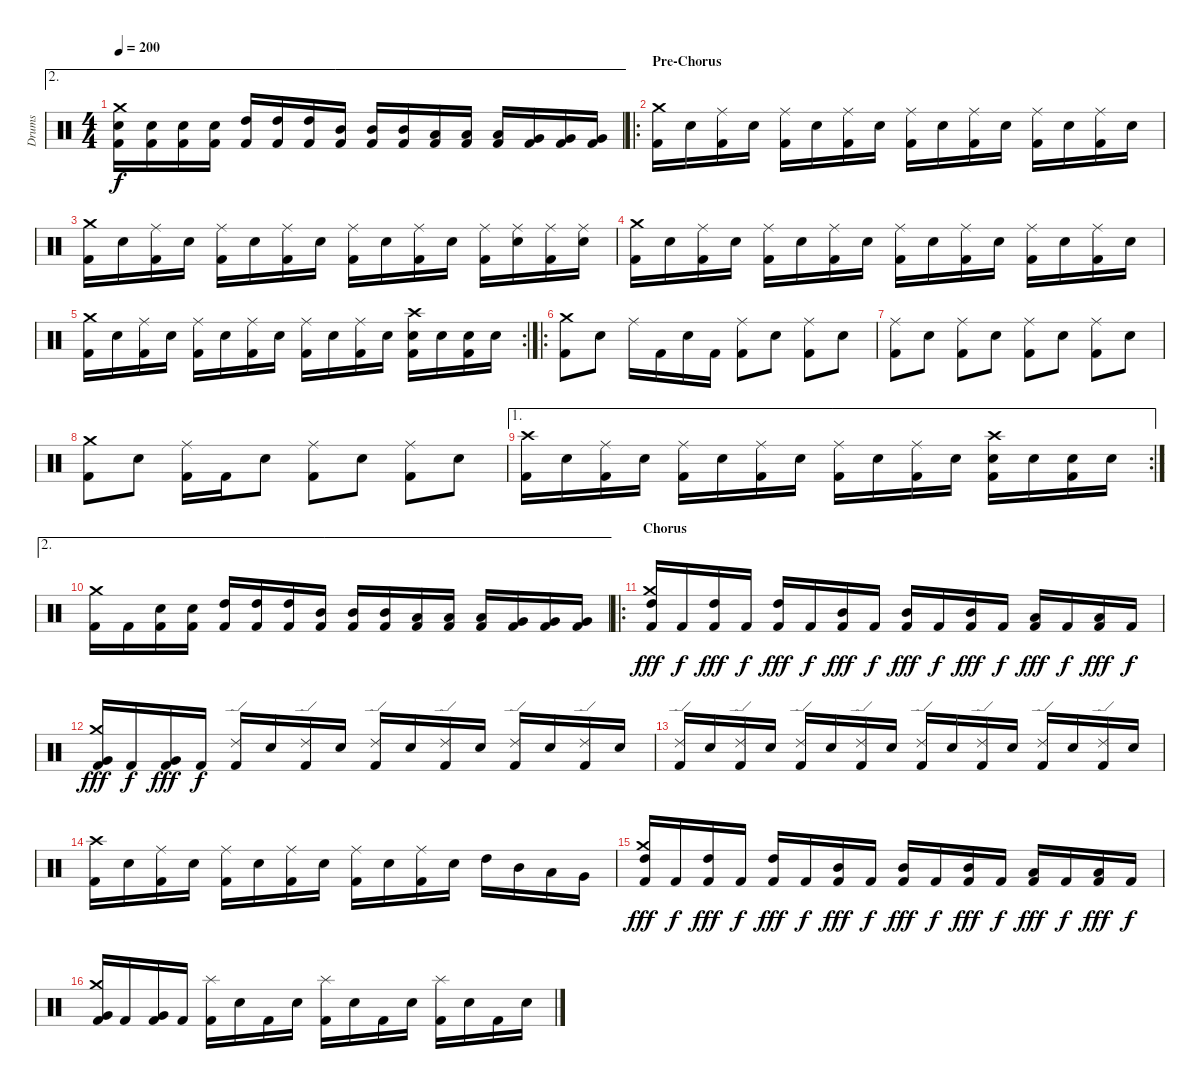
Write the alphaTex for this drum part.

\track ("Drums" "Drums") {instrument percussion}
\staff {score}
\articulation defaults
\ae 2
\ts (4 4)
\tempo 200
\clef neutral
\ks c
("Kick (hit) 2" "Electric Snare (hit)" "Crash medium (hit)").16{dy f} ("Kick (hit) 2" "Electric Snare (hit)").16 ("Kick (hit) 2" "Electric Snare (hit)").16 ("Kick (hit) 2" "Electric Snare (hit)").16 ("Kick (hit) 2" "High Tom (hit)").16 ("Kick (hit) 2" "High Tom (hit)").16 ("Kick (hit) 2" "High Tom (hit)").16 ("Kick (hit) 2" "Mid Tom (hit)").16 ("Kick (hit) 2" "Mid Tom (hit)").16 ("Kick (hit) 2" "Mid Tom (hit)").16 ("Kick (hit) 2" "Low Tom (hit)").16 ("Kick (hit) 2" "Low Tom (hit)").16 ("Kick (hit) 2" "Low Tom (hit)").16 ("Kick (hit) 2" "Very Low Tom (hit)").16 ("Kick (hit) 2" "Very Low Tom (hit)").16 ("Kick (hit) 2" "Very Low Tom (hit)").16 |
\ro
\section ("" "Pre-Chorus")
("Kick (hit) 2" "Crash medium (hit)").16 "Electric Snare (hit)".16 ("Kick (hit) 2" "Ride (middle)").16 "Electric Snare (hit)".16 ("Kick (hit) 2" "Ride (middle)").16 "Electric Snare (hit)".16 ("Kick (hit) 2" "Ride (middle)").16 "Electric Snare (hit)".16 ("Kick (hit) 2" "Ride (middle)").16 "Electric Snare (hit)".16 ("Kick (hit) 2" "Ride (middle)").16 "Electric Snare (hit)".16 ("Kick (hit) 2" "Ride (middle)").16 "Electric Snare (hit)".16 ("Kick (hit) 2" "Ride (middle)").16 "Electric Snare (hit)".16 |
("Kick (hit) 2" "Crash medium (hit)").16 "Electric Snare (hit)".16 ("Kick (hit) 2" "Ride (middle)").16 "Electric Snare (hit)".16 ("Kick (hit) 2" "Ride (middle)").16 "Electric Snare (hit)".16 ("Kick (hit) 2" "Ride (middle)").16 "Electric Snare (hit)".16 ("Kick (hit) 2" "Ride (middle)").16 "Electric Snare (hit)".16 ("Kick (hit) 2" "Ride (middle)").16 "Electric Snare (hit)".16 ("Kick (hit) 2" "Ride (middle)").16 ("Electric Snare (hit)" "Ride (middle)").16 ("Kick (hit) 2" "Ride (middle)").16 ("Electric Snare (hit)" "Ride (middle)").16 |
("Kick (hit) 2" "Crash medium (hit)").16 "Electric Snare (hit)".16 ("Kick (hit) 2" "Ride (middle)").16 "Electric Snare (hit)".16 ("Kick (hit) 2" "Ride (middle)").16 "Electric Snare (hit)".16 ("Kick (hit) 2" "Ride (middle)").16 "Electric Snare (hit)".16 ("Kick (hit) 2" "Ride (middle)").16 "Electric Snare (hit)".16 ("Kick (hit) 2" "Ride (middle)").16 "Electric Snare (hit)".16 ("Kick (hit) 2" "Ride (middle)").16 "Electric Snare (hit)".16 ("Kick (hit) 2" "Ride (middle)").16 "Electric Snare (hit)".16 |
\rc 2
("Kick (hit) 2" "Crash medium (hit)").16 "Electric Snare (hit)".16 ("Kick (hit) 2" "Ride (middle)").16 "Electric Snare (hit)".16 ("Kick (hit) 2" "Ride (middle)").16 "Electric Snare (hit)".16 ("Kick (hit) 2" "Ride (middle)").16 "Electric Snare (hit)".16 ("Kick (hit) 2" "Ride (middle)").16 "Electric Snare (hit)".16 ("Kick (hit) 2" "Ride (middle)").16 "Electric Snare (hit)".16 ("Kick (hit) 2" "Electric Snare (hit)" "Crash high (hit)").16 "Electric Snare (hit)".16 ("Kick (hit) 2" "Electric Snare (hit)").16 "Electric Snare (hit)".16 |
\ro
("Kick (hit) 2" "Crash medium (hit)").8 "Electric Snare (hit)".8 "Ride (middle)".16 "Kick (hit) 2".16 "Electric Snare (hit)".16 "Kick (hit) 2".16 ("Kick (hit) 2" "Ride (middle)").8 "Electric Snare (hit)".8 ("Kick (hit) 2" "Ride (middle)").8 "Electric Snare (hit)".8 |
("Kick (hit) 2" "Ride (middle)").8 "Electric Snare (hit)".8 ("Kick (hit) 2" "Ride (middle)").8 "Electric Snare (hit)".8 ("Kick (hit) 2" "Ride (middle)").8 "Electric Snare (hit)".8 ("Kick (hit) 2" "Ride (middle)").8 "Electric Snare (hit)".8 |
("Kick (hit) 2" "Crash medium (hit)").8 "Electric Snare (hit)".8 ("Kick (hit) 2" "Ride (middle)").16 "Kick (hit) 2".16 "Electric Snare (hit)".8 ("Kick (hit) 2" "Ride (middle)").8 "Electric Snare (hit)".8 ("Kick (hit) 2" "Ride (middle)").8 "Electric Snare (hit)".8 |
\ae 1
\rc 2
("Kick (hit) 2" "Crash high (hit)").16 "Electric Snare (hit)".16 ("Kick (hit) 2" "Ride (middle)").16 "Electric Snare (hit)".16 ("Kick (hit) 2" "Ride (middle)").16 "Electric Snare (hit)".16 ("Kick (hit) 2" "Ride (middle)").16 "Electric Snare (hit)".16 ("Kick (hit) 2" "Ride (middle)").16 "Electric Snare (hit)".16 ("Kick (hit) 2" "Ride (middle)").16 "Electric Snare (hit)".16 ("Kick (hit) 2" "Electric Snare (hit)" "Crash high (hit)").16 "Electric Snare (hit)".16 ("Kick (hit) 2" "Electric Snare (hit)").16 "Electric Snare (hit)".16 |
\ae 2
("Kick (hit) 2" "Crash medium (hit)").16 "Kick (hit) 2".16 ("Kick (hit) 2" "Electric Snare (hit)").16 ("Kick (hit) 2" "Electric Snare (hit)").16 ("Kick (hit) 2" "High Tom (hit)").16 ("Kick (hit) 2" "High Tom (hit)").16 ("Kick (hit) 2" "High Tom (hit)").16 ("Kick (hit) 2" "Mid Tom (hit)").16 ("Kick (hit) 2" "Mid Tom (hit)").16 ("Kick (hit) 2" "Mid Tom (hit)").16 ("Kick (hit) 2" "Low Tom (hit)").16 ("Kick (hit) 2" "Low Tom (hit)").16 ("Kick (hit) 2" "Low Tom (hit)").16 ("Kick (hit) 2" "Very Low Tom (hit)").16 ("Kick (hit) 2" "Very Low Tom (hit)").16 ("Kick (hit) 2" "Very Low Tom (hit)").16 |
\ro
\section ("" "Chorus")
("Kick (hit) 2" "High Tom (hit)" "Crash medium (hit)").16{dy fff} "Kick (hit) 2".16{dy f} ("Kick (hit) 2" "High Tom (hit)").16{dy fff} "Kick (hit) 2".16{dy f} ("Kick (hit) 2" "High Tom (hit)").16{dy fff} "Kick (hit) 2".16{dy f} ("Kick (hit) 2" "Mid Tom (hit)").16{dy fff} "Kick (hit) 2".16{dy f} ("Kick (hit) 2" "Mid Tom (hit)").16{dy fff} "Kick (hit) 2".16{dy f} ("Kick (hit) 2" "Mid Tom (hit)").16{dy fff} "Kick (hit) 2".16{dy f} ("Kick (hit) 2" "Low Tom (hit)").16{dy fff} "Kick (hit) 2".16{dy f} ("Kick (hit) 2" "Low Tom (hit)").16{dy fff} "Kick (hit) 2".16{dy f} |
("Kick (hit) 2" "Very Low Tom (hit)" "Crash medium (hit)").16{dy fff} "Kick (hit) 2".16{dy f} ("Kick (hit) 2" "Very Low Tom (hit)").16{dy fff} "Kick (hit) 2".16{dy f} ("Kick (hit) 2" "Ride (edge) 2").16 "Electric Snare (hit)".16 ("Kick (hit) 2" "Ride (edge) 2").16 "Electric Snare (hit)".16 ("Kick (hit) 2" "Ride (edge) 2").16 "Electric Snare (hit)".16 ("Kick (hit) 2" "Ride (edge) 2").16 "Electric Snare (hit)".16 ("Kick (hit) 2" "Ride (edge) 2").16 "Electric Snare (hit)".16 ("Kick (hit) 2" "Ride (edge) 2").16 "Electric Snare (hit)".16 |
("Kick (hit) 2" "Ride (edge) 2").16 "Electric Snare (hit)".16 ("Kick (hit) 2" "Ride (edge) 2").16 "Electric Snare (hit)".16 ("Kick (hit) 2" "Ride (edge) 2").16 "Electric Snare (hit)".16 ("Kick (hit) 2" "Ride (edge) 2").16 "Electric Snare (hit)".16 ("Kick (hit) 2" "Ride (edge) 2").16 "Electric Snare (hit)".16 ("Kick (hit) 2" "Ride (edge) 2").16 "Electric Snare (hit)".16 ("Kick (hit) 2" "Ride (edge) 2").16 "Electric Snare (hit)".16 ("Kick (hit) 2" "Ride (edge) 2").16 "Electric Snare (hit)".16 |
("Kick (hit) 2" "Crash high (hit)").16 "Electric Snare (hit)".16 ("Kick (hit) 2" "Ride (middle)").16 "Electric Snare (hit)".16 ("Kick (hit) 2" "Ride (middle)").16 "Electric Snare (hit)".16 ("Kick (hit) 2" "Ride (middle)").16 "Electric Snare (hit)".16 ("Kick (hit) 2" "Ride (middle)").16 "Electric Snare (hit)".16 ("Kick (hit) 2" "Ride (middle)").16 "Electric Snare (hit)".16 "High Tom (hit)".16 "Mid Tom (hit)".16 "Low Tom (hit)".16 "Very Low Tom (hit)".16 |
("Kick (hit) 2" "High Tom (hit)" "Crash medium (hit)").16{dy fff} "Kick (hit) 2".16{dy f} ("Kick (hit) 2" "High Tom (hit)").16{dy fff} "Kick (hit) 2".16{dy f} ("Kick (hit) 2" "High Tom (hit)").16{dy fff} "Kick (hit) 2".16{dy f} ("Kick (hit) 2" "Mid Tom (hit)").16{dy fff} "Kick (hit) 2".16{dy f} ("Kick (hit) 2" "Mid Tom (hit)").16{dy fff} "Kick (hit) 2".16{dy f} ("Kick (hit) 2" "Mid Tom (hit)").16{dy fff} "Kick (hit) 2".16{dy f} ("Kick (hit) 2" "Low Tom (hit)").16{dy fff} "Kick (hit) 2".16{dy f} ("Kick (hit) 2" "Low Tom (hit)").16{dy fff} "Kick (hit) 2".16{dy f} |
("Kick (hit) 2" "Very Low Tom (hit)" "Crash medium (hit)").16 "Kick (hit) 2".16 ("Kick (hit) 2" "Very Low Tom (hit)").16 "Kick (hit) 2".16 ("Kick (hit) 2" "Splash (hit)").16 "Electric Snare (hit)".16 "Kick (hit) 2".16 "Electric Snare (hit)".16 ("Kick (hit) 2" "Splash (hit)").16 "Electric Snare (hit)".16 "Kick (hit) 2".16 "Electric Snare (hit)".16 ("Kick (hit) 2" "Splash (hit)").16 "Electric Snare (hit)".16 "Kick (hit) 2".16 "Electric Snare (hit)".16
